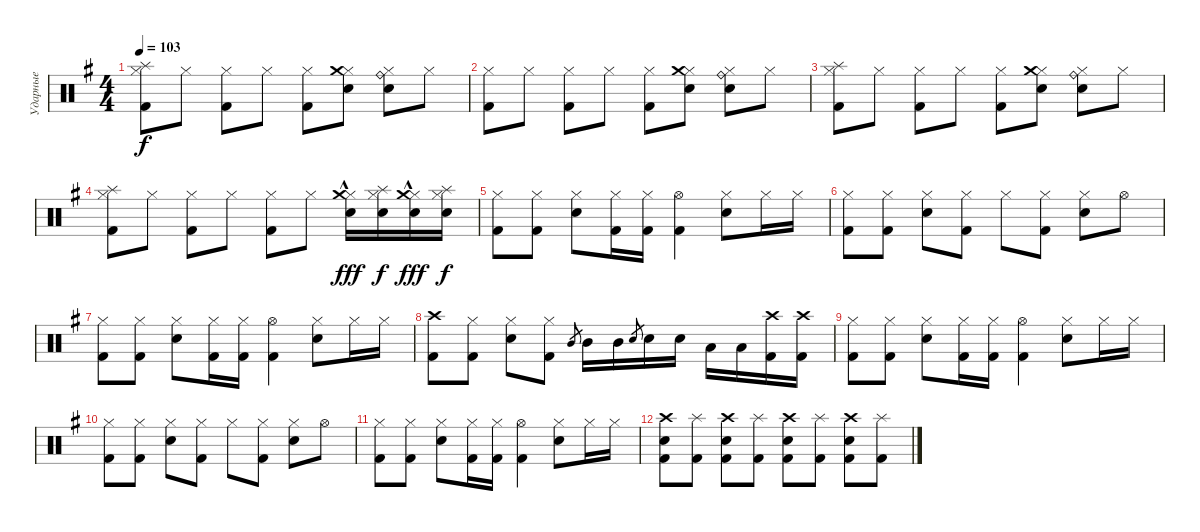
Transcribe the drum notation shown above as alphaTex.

\track ("Ударные" "Ударные") {instrument percussion}
\staff {score}
\articulation defaults
\ts (4 4)
\tempo 103
\clef neutral
\ks eminor
("Hi-Hat (closed)" "Splash (hit)" "Kick (hit) 2").8{dy f} "Hi-Hat (closed)".8 ("Hi-Hat (closed)" "Kick (hit) 2").8 "Hi-Hat (closed)".8 ("Hi-Hat (closed)" "Kick (hit) 2").8 ("Hi-Hat (closed)" "Crash medium (hit)" "Snare (hit) 2").8 ("Hi-Hat (closed)" "Ride (bell)" "Snare (hit) 2").8 "Hi-Hat (closed)".8 |
("Hi-Hat (closed)" "Kick (hit) 2").8 "Hi-Hat (closed)".8 ("Hi-Hat (closed)" "Kick (hit) 2").8 "Hi-Hat (closed)".8 ("Hi-Hat (closed)" "Kick (hit) 2").8 ("Hi-Hat (closed)" "Crash medium (hit)" "Snare (hit) 2").8 ("Hi-Hat (closed)" "Ride (bell)" "Snare (hit) 2").8 "Hi-Hat (closed)".8 |
("Hi-Hat (closed)" "Splash (hit)" "Kick (hit) 2").8 "Hi-Hat (closed)".8 ("Hi-Hat (closed)" "Kick (hit) 2").8 "Hi-Hat (closed)".8 ("Hi-Hat (closed)" "Kick (hit) 2").8 ("Hi-Hat (closed)" "Crash medium (hit)" "Snare (hit) 2").8 ("Hi-Hat (closed)" "Ride (bell)" "Snare (hit) 2").8 "Hi-Hat (closed)".8 |
("Hi-Hat (closed)" "Splash (hit)" "Kick (hit) 2").8 "Hi-Hat (closed)".8 ("Hi-Hat (closed)" "Kick (hit) 2").8 "Hi-Hat (closed)".8 ("Hi-Hat (closed)" "Kick (hit) 2").8 "Hi-Hat (closed)".8 ("Hi-Hat (closed)" "Crash medium (hit)" "Snare (hit) 2"{hac}).16{dy fff} ("Hi-Hat (closed)" "Splash (hit)" "Snare (hit) 2").16{dy f} ("Hi-Hat (closed)" "Crash medium (hit)" "Snare (hit) 2"{hac}).16{dy fff} ("Hi-Hat (closed)" "Splash (hit)" "Snare (hit) 2").16{dy f} |
("Hi-Hat (closed)" "Kick (hit) 2").8 ("Hi-Hat (closed)" "Kick (hit) 2").8 ("Hi-Hat (closed)" "Snare (hit) 2").8 ("Hi-Hat (closed)" "Kick (hit) 2").16 ("Hi-Hat (closed)" "Kick (hit) 2").16 ("Hi-Hat (open)" "Kick (hit) 2").4 ("Hi-Hat (closed)" "Snare (hit) 2").8 "Hi-Hat (closed)".16 "Hi-Hat (closed)".16 |
("Hi-Hat (closed)" "Kick (hit) 2").8 ("Hi-Hat (closed)" "Kick (hit) 2").8 ("Hi-Hat (closed)" "Snare (hit) 2").8 ("Hi-Hat (closed)" "Kick (hit) 2").8 "Hi-Hat (closed)".8 ("Hi-Hat (closed)" "Kick (hit) 2").8 ("Hi-Hat (closed)" "Snare (hit) 2").8 "Hi-Hat (open)".8 |
("Hi-Hat (closed)" "Kick (hit) 2").8 ("Hi-Hat (closed)" "Kick (hit) 2").8 ("Hi-Hat (closed)" "Snare (hit) 2").8 ("Hi-Hat (closed)" "Kick (hit) 2").16 ("Hi-Hat (closed)" "Kick (hit) 2").16 ("Hi-Hat (open)" "Kick (hit) 2").4 ("Hi-Hat (closed)" "Snare (hit) 2").8 "Hi-Hat (closed)".16 "Hi-Hat (closed)".16 |
("Crash high (hit)" "Kick (hit) 2").8 ("Hi-Hat (closed)" "Kick (hit) 2").8 ("Hi-Hat (closed)" "Snare (hit) 2").8 ("Hi-Hat (closed)" "Kick (hit) 2").8 "Mid Tom (hit)".8{gr} "Mid Tom (hit)".16 "Mid Tom (hit)".16 "Snare (hit) 2".8{gr} "Snare (hit) 2".16 "Snare (hit) 2".16 "Low Tom (hit)".16 "Low Tom (hit)".16 ("Crash high (hit)" "Kick (hit) 2").16 ("Crash high (hit)" "Kick (hit) 2").16 |
("Hi-Hat (closed)" "Kick (hit) 2").8 ("Hi-Hat (closed)" "Kick (hit) 2").8 ("Hi-Hat (closed)" "Snare (hit) 2").8 ("Hi-Hat (closed)" "Kick (hit) 2").16 ("Hi-Hat (closed)" "Kick (hit) 2").16 ("Hi-Hat (open)" "Kick (hit) 2").4 ("Hi-Hat (closed)" "Snare (hit) 2").8 "Hi-Hat (closed)".16 "Hi-Hat (closed)".16 |
("Hi-Hat (closed)" "Kick (hit) 2").8 ("Hi-Hat (closed)" "Kick (hit) 2").8 ("Hi-Hat (closed)" "Snare (hit) 2").8 ("Hi-Hat (closed)" "Kick (hit) 2").8 "Hi-Hat (closed)".8 ("Hi-Hat (closed)" "Kick (hit) 2").8 ("Hi-Hat (closed)" "Snare (hit) 2").8 "Hi-Hat (open)".8 |
("Hi-Hat (closed)" "Kick (hit) 2").8 ("Hi-Hat (closed)" "Kick (hit) 2").8 ("Hi-Hat (closed)" "Snare (hit) 2").8 ("Hi-Hat (closed)" "Kick (hit) 2").16 ("Hi-Hat (closed)" "Kick (hit) 2").16 ("Hi-Hat (open)" "Kick (hit) 2").4 ("Hi-Hat (closed)" "Snare (hit) 2").8 "Hi-Hat (closed)".16 "Hi-Hat (closed)".16 |
("Crash high (hit)" "Snare (hit) 2" "Kick (hit) 2").8 ("Splash (hit)" "Kick (hit) 2").8 ("Crash high (hit)" "Snare (hit) 2" "Kick (hit) 2").8 ("Splash (hit)" "Kick (hit) 2").8 ("Crash high (hit)" "Snare (hit) 2" "Kick (hit) 2").8 ("Splash (hit)" "Kick (hit) 2").8 ("Crash high (hit)" "Snare (hit) 2" "Kick (hit) 2").8 ("Splash (hit)" "Kick (hit) 2").8
